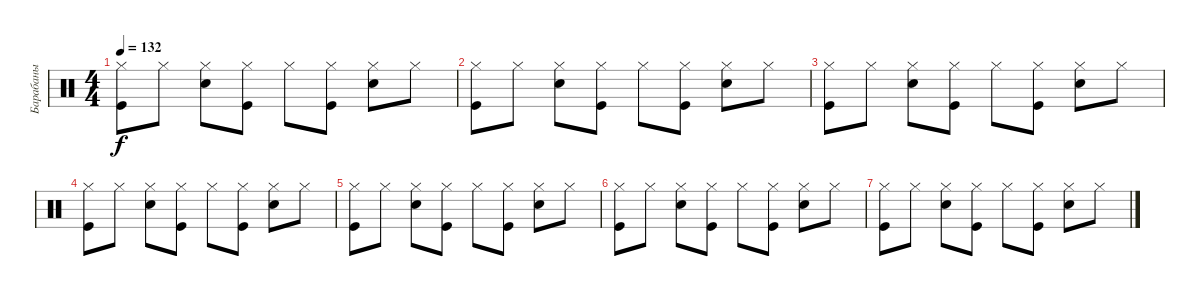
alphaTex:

\track ("Барабаны" "Барабаны") {instrument percussion}
\staff {score}
\articulation defaults
\ts (4 4)
\tempo 132
\clef neutral
\ks c
("Kick (hit)" "Hi-Hat (closed)").8{dy f volume 2} "Hi-Hat (closed)".8 ("Snare (hit) 2" "Hi-Hat (closed)").8 ("Kick (hit)" "Hi-Hat (closed)").8 "Hi-Hat (closed)".8 ("Kick (hit)" "Hi-Hat (closed)").8 ("Snare (hit) 2" "Hi-Hat (closed)").8 "Hi-Hat (closed)".8 |
("Kick (hit)" "Hi-Hat (closed)").8 "Hi-Hat (closed)".8 ("Snare (hit) 2" "Hi-Hat (closed)").8 ("Kick (hit)" "Hi-Hat (closed)").8 "Hi-Hat (closed)".8 ("Kick (hit)" "Hi-Hat (closed)").8 ("Snare (hit) 2" "Hi-Hat (closed)").8 "Hi-Hat (closed)".8 |
("Kick (hit)" "Hi-Hat (closed)").8 "Hi-Hat (closed)".8 ("Snare (hit) 2" "Hi-Hat (closed)").8 ("Kick (hit)" "Hi-Hat (closed)").8 "Hi-Hat (closed)".8 ("Kick (hit)" "Hi-Hat (closed)").8 ("Snare (hit) 2" "Hi-Hat (closed)").8 "Hi-Hat (closed)".8 |
("Kick (hit)" "Hi-Hat (closed)").8 "Hi-Hat (closed)".8 ("Snare (hit) 2" "Hi-Hat (closed)").8 ("Kick (hit)" "Hi-Hat (closed)").8 "Hi-Hat (closed)".8 ("Kick (hit)" "Hi-Hat (closed)").8 ("Snare (hit) 2" "Hi-Hat (closed)").8 "Hi-Hat (closed)".8 |
("Kick (hit)" "Hi-Hat (closed)").8{volume 0} "Hi-Hat (closed)".8 ("Snare (hit) 2" "Hi-Hat (closed)").8 ("Kick (hit)" "Hi-Hat (closed)").8 "Hi-Hat (closed)".8 ("Kick (hit)" "Hi-Hat (closed)").8 ("Snare (hit) 2" "Hi-Hat (closed)").8 "Hi-Hat (closed)".8 |
("Kick (hit)" "Hi-Hat (closed)").8 "Hi-Hat (closed)".8 ("Snare (hit) 2" "Hi-Hat (closed)").8 ("Kick (hit)" "Hi-Hat (closed)").8 "Hi-Hat (closed)".8 ("Kick (hit)" "Hi-Hat (closed)").8 ("Snare (hit) 2" "Hi-Hat (closed)").8 "Hi-Hat (closed)".8 |
("Kick (hit)" "Hi-Hat (closed)").8 "Hi-Hat (closed)".8 ("Snare (hit) 2" "Hi-Hat (closed)").8 ("Kick (hit)" "Hi-Hat (closed)").8 "Hi-Hat (closed)".8 ("Kick (hit)" "Hi-Hat (closed)").8 ("Snare (hit) 2" "Hi-Hat (closed)").8 "Hi-Hat (closed)".8
